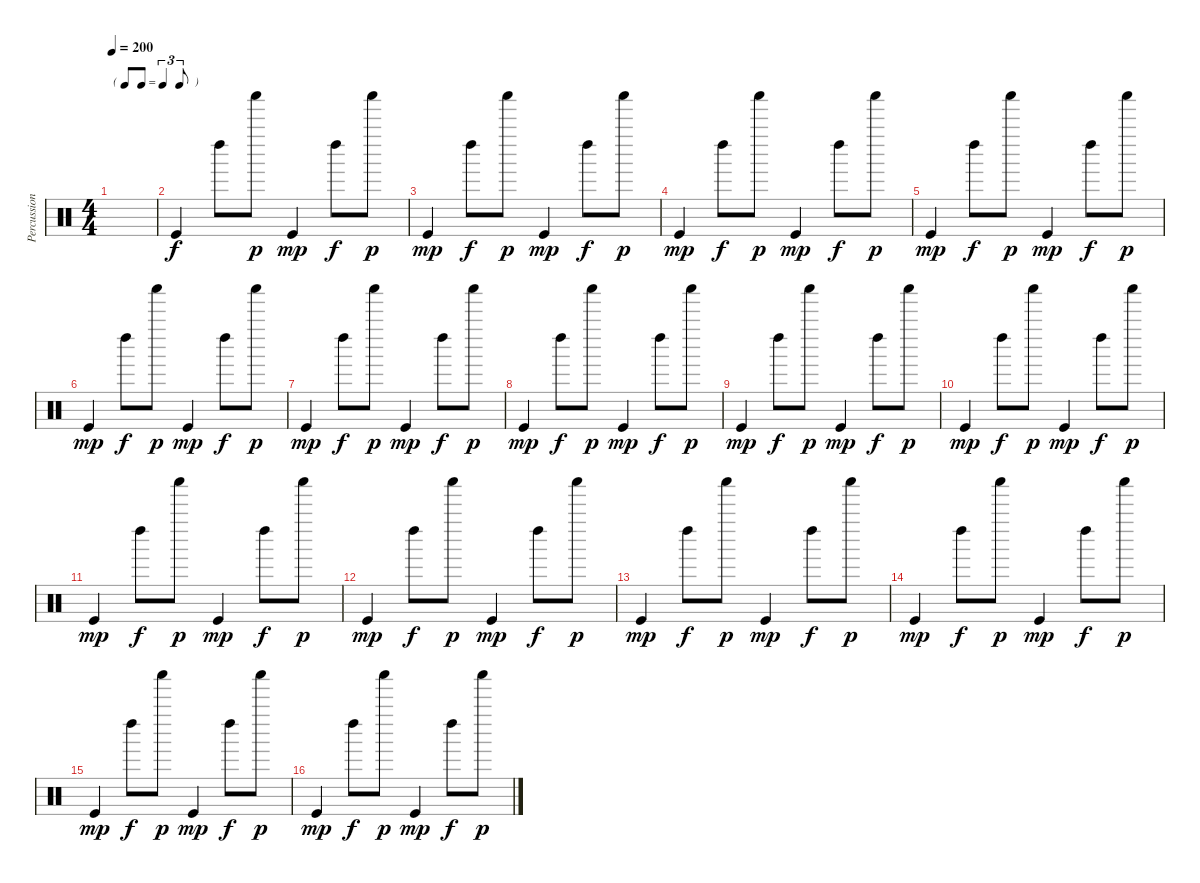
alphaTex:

\track ("Percussions" "Percussion") {instrument percussion}
\staff {score}
\articulation defaults
\ts (4 4)
\tf triplet8th
\tempo 200
\clef neutral
\ks c
|
"Kick (hit)".4 "Left Maraca (hit)".8{dy f} "Shaker (hit)".8{dy p} "Kick (hit)".4{dy mp} "Left Maraca (hit)".8{dy f} "Shaker (hit)".8{dy p} |
"Kick (hit)".4{dy mp} "Left Maraca (hit)".8{dy f} "Shaker (hit)".8{dy p} "Kick (hit)".4{dy mp} "Left Maraca (hit)".8{dy f} "Shaker (hit)".8{dy p} |
"Kick (hit)".4{dy mp} "Left Maraca (hit)".8{dy f} "Shaker (hit)".8{dy p} "Kick (hit)".4{dy mp} "Left Maraca (hit)".8{dy f} "Shaker (hit)".8{dy p} |
"Kick (hit)".4{dy mp} "Left Maraca (hit)".8{dy f} "Shaker (hit)".8{dy p} "Kick (hit)".4{dy mp} "Left Maraca (hit)".8{dy f} "Shaker (hit)".8{dy p} |
"Kick (hit)".4{dy mp} "Left Maraca (hit)".8{dy f} "Shaker (hit)".8{dy p} "Kick (hit)".4{dy mp} "Left Maraca (hit)".8{dy f} "Shaker (hit)".8{dy p} |
"Kick (hit)".4{dy mp} "Left Maraca (hit)".8{dy f} "Shaker (hit)".8{dy p} "Kick (hit)".4{dy mp} "Left Maraca (hit)".8{dy f} "Shaker (hit)".8{dy p} |
"Kick (hit)".4{dy mp} "Left Maraca (hit)".8{dy f} "Shaker (hit)".8{dy p} "Kick (hit)".4{dy mp} "Left Maraca (hit)".8{dy f} "Shaker (hit)".8{dy p} |
"Kick (hit)".4{dy mp} "Left Maraca (hit)".8{dy f} "Shaker (hit)".8{dy p} "Kick (hit)".4{dy mp} "Left Maraca (hit)".8{dy f} "Shaker (hit)".8{dy p} |
"Kick (hit)".4{dy mp} "Left Maraca (hit)".8{dy f} "Shaker (hit)".8{dy p} "Kick (hit)".4{dy mp} "Left Maraca (hit)".8{dy f} "Shaker (hit)".8{dy p} |
"Kick (hit)".4{dy mp} "Left Maraca (hit)".8{dy f} "Shaker (hit)".8{dy p} "Kick (hit)".4{dy mp} "Left Maraca (hit)".8{dy f} "Shaker (hit)".8{dy p} |
"Kick (hit)".4{dy mp} "Left Maraca (hit)".8{dy f} "Shaker (hit)".8{dy p} "Kick (hit)".4{dy mp} "Left Maraca (hit)".8{dy f} "Shaker (hit)".8{dy p} |
"Kick (hit)".4{dy mp} "Left Maraca (hit)".8{dy f} "Shaker (hit)".8{dy p} "Kick (hit)".4{dy mp} "Left Maraca (hit)".8{dy f} "Shaker (hit)".8{dy p} |
"Kick (hit)".4{dy mp} "Left Maraca (hit)".8{dy f} "Shaker (hit)".8{dy p} "Kick (hit)".4{dy mp} "Left Maraca (hit)".8{dy f} "Shaker (hit)".8{dy p} |
"Kick (hit)".4{dy mp} "Left Maraca (hit)".8{dy f} "Shaker (hit)".8{dy p} "Kick (hit)".4{dy mp} "Left Maraca (hit)".8{dy f} "Shaker (hit)".8{dy p} |
"Kick (hit)".4{dy mp} "Left Maraca (hit)".8{dy f} "Shaker (hit)".8{dy p} "Kick (hit)".4{dy mp} "Left Maraca (hit)".8{dy f} "Shaker (hit)".8{dy p}
